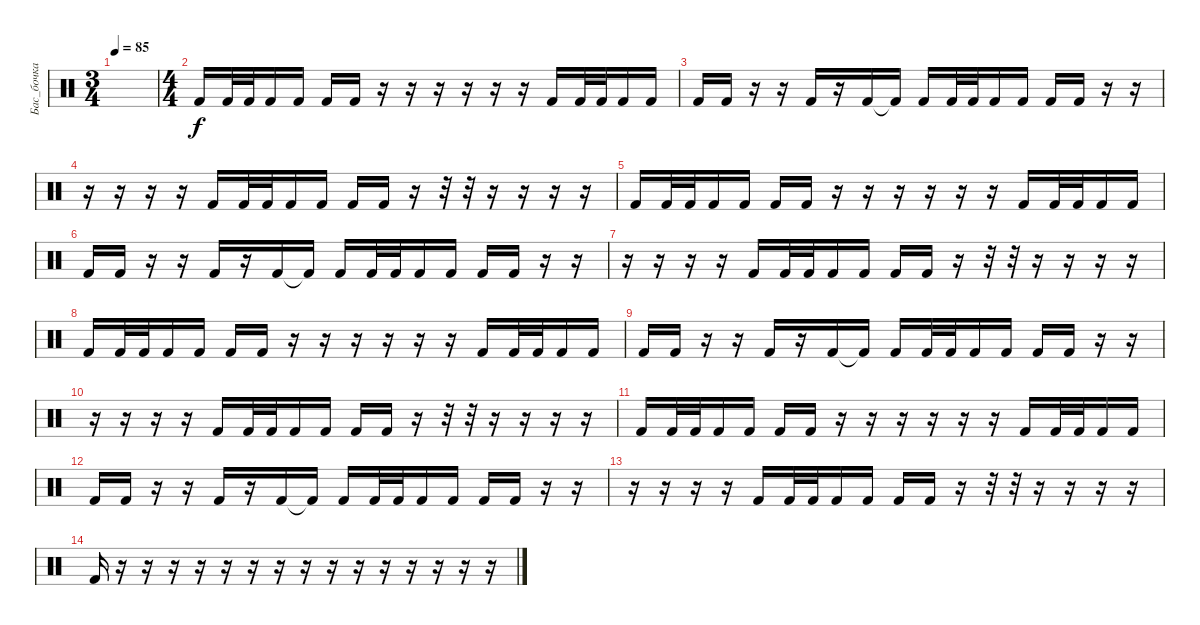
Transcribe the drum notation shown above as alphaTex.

\track ("Бас_бочка" "Бас_бочка") {instrument percussion}
\staff {score}
\articulation defaults
\ts (3 4)
\tempo 85
\clef neutral
\ks c
|
\ts (4 4)
"Kick (hit) 2".16 "Kick (hit) 2".32 "Kick (hit) 2".32 "Kick (hit) 2".16 "Kick (hit) 2".16 "Kick (hit) 2".16 "Kick (hit) 2".16 r.16 r.16 r.16 r.16 r.16 r.16 "Kick (hit) 2".16 "Kick (hit) 2".32 "Kick (hit) 2".32 "Kick (hit) 2".16 "Kick (hit) 2".16 |
"Kick (hit) 2".16 "Kick (hit) 2".16 r.16 r.16 "Kick (hit) 2".16 r.16 "Kick (hit) 2".16 "Kick (hit) 2"{t}.16 "Kick (hit) 2".16 "Kick (hit) 2".32 "Kick (hit) 2".32 "Kick (hit) 2".16 "Kick (hit) 2".16 "Kick (hit) 2".16 "Kick (hit) 2".16 r.16 r.16 |
r.16 r.16 r.16 r.16 "Kick (hit) 2".16 "Kick (hit) 2".32 "Kick (hit) 2".32 "Kick (hit) 2".16 "Kick (hit) 2".16 "Kick (hit) 2".16 "Kick (hit) 2".16 r.16 r.32 r.32 r.16 r.16 r.16 r.16 |
"Kick (hit) 2".16 "Kick (hit) 2".32 "Kick (hit) 2".32 "Kick (hit) 2".16 "Kick (hit) 2".16 "Kick (hit) 2".16 "Kick (hit) 2".16 r.16 r.16 r.16 r.16 r.16 r.16 "Kick (hit) 2".16 "Kick (hit) 2".32 "Kick (hit) 2".32 "Kick (hit) 2".16 "Kick (hit) 2".16 |
"Kick (hit) 2".16 "Kick (hit) 2".16 r.16 r.16 "Kick (hit) 2".16 r.16 "Kick (hit) 2".16 "Kick (hit) 2"{t}.16 "Kick (hit) 2".16 "Kick (hit) 2".32 "Kick (hit) 2".32 "Kick (hit) 2".16 "Kick (hit) 2".16 "Kick (hit) 2".16 "Kick (hit) 2".16 r.16 r.16 |
r.16 r.16 r.16 r.16 "Kick (hit) 2".16 "Kick (hit) 2".32 "Kick (hit) 2".32 "Kick (hit) 2".16 "Kick (hit) 2".16 "Kick (hit) 2".16 "Kick (hit) 2".16 r.16 r.32 r.32 r.16 r.16 r.16 r.16 |
"Kick (hit) 2".16 "Kick (hit) 2".32 "Kick (hit) 2".32 "Kick (hit) 2".16 "Kick (hit) 2".16 "Kick (hit) 2".16 "Kick (hit) 2".16 r.16 r.16 r.16 r.16 r.16 r.16 "Kick (hit) 2".16 "Kick (hit) 2".32 "Kick (hit) 2".32 "Kick (hit) 2".16 "Kick (hit) 2".16 |
"Kick (hit) 2".16 "Kick (hit) 2".16 r.16 r.16 "Kick (hit) 2".16 r.16 "Kick (hit) 2".16 "Kick (hit) 2"{t}.16 "Kick (hit) 2".16 "Kick (hit) 2".32 "Kick (hit) 2".32 "Kick (hit) 2".16 "Kick (hit) 2".16 "Kick (hit) 2".16 "Kick (hit) 2".16 r.16 r.16 |
r.16 r.16 r.16 r.16 "Kick (hit) 2".16 "Kick (hit) 2".32 "Kick (hit) 2".32 "Kick (hit) 2".16 "Kick (hit) 2".16 "Kick (hit) 2".16 "Kick (hit) 2".16 r.16 r.32 r.32 r.16 r.16 r.16 r.16 |
"Kick (hit) 2".16 "Kick (hit) 2".32 "Kick (hit) 2".32 "Kick (hit) 2".16 "Kick (hit) 2".16 "Kick (hit) 2".16 "Kick (hit) 2".16 r.16 r.16 r.16 r.16 r.16 r.16 "Kick (hit) 2".16 "Kick (hit) 2".32 "Kick (hit) 2".32 "Kick (hit) 2".16 "Kick (hit) 2".16 |
"Kick (hit) 2".16 "Kick (hit) 2".16 r.16 r.16 "Kick (hit) 2".16 r.16 "Kick (hit) 2".16 "Kick (hit) 2"{t}.16 "Kick (hit) 2".16 "Kick (hit) 2".32 "Kick (hit) 2".32 "Kick (hit) 2".16 "Kick (hit) 2".16 "Kick (hit) 2".16 "Kick (hit) 2".16 r.16 r.16 |
r.16 r.16 r.16 r.16 "Kick (hit) 2".16 "Kick (hit) 2".32 "Kick (hit) 2".32 "Kick (hit) 2".16 "Kick (hit) 2".16 "Kick (hit) 2".16 "Kick (hit) 2".16 r.16 r.32 r.32 r.16 r.16 r.16 r.16 |
"Kick (hit) 2".16 r.16 r.16 r.16 r.16 r.16 r.16 r.16 r.16 r.16 r.16 r.16 r.16 r.16 r.16 r.16
